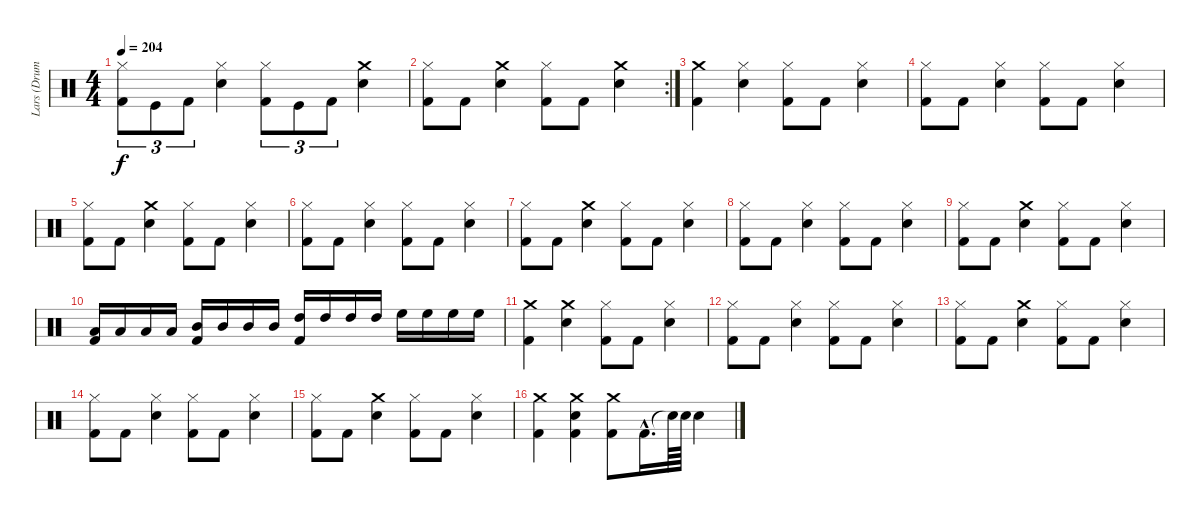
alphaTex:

\track ("Lars (Drums)" "Lars (Drum") {instrument percussion}
\staff {score}
\articulation defaults
\ts (4 4)
\tempo 204
\clef neutral
\ks c
("Hi-Hat (closed)" "Kick (hit) 2").8{tu (3 2) dy f} "Kick (hit)".8{tu (3 2)} "Kick (hit) 2".8{tu (3 2)} ("Snare (hit) 2" "Hi-Hat (closed)").4 ("Hi-Hat (closed)" "Kick (hit) 2").8{tu (3 2)} "Kick (hit)".8{tu (3 2)} "Kick (hit) 2".8{tu (3 2)} ("Crash medium (hit)" "Snare (hit) 2").4 |
\rc 2
("Kick (hit) 2" "Hi-Hat (closed)").8 "Kick (hit) 2".8 ("Crash medium (hit)" "Snare (hit) 2").4 ("Kick (hit) 2" "Hi-Hat (closed)").8 "Kick (hit) 2".8 ("Crash medium (hit)" "Snare (hit) 2").4 |
("Kick (hit) 2" "Crash medium (hit)").4 ("Hi-Hat (closed)" "Snare (hit) 2").4 ("Hi-Hat (closed)" "Kick (hit) 2").8 "Kick (hit) 2".8 ("Snare (hit) 2" "Hi-Hat (closed)").4 |
("Kick (hit) 2" "Hi-Hat (closed)").8 "Kick (hit) 2".8 ("Snare (hit) 2" "Hi-Hat (closed)").4 ("Kick (hit) 2" "Hi-Hat (closed)").8 "Kick (hit) 2".8 ("Snare (hit) 2" "Hi-Hat (closed)").4 |
("Kick (hit) 2" "Hi-Hat (closed)").8 "Kick (hit) 2".8 ("Crash medium (hit)" "Snare (hit) 2").4 ("Kick (hit) 2" "Hi-Hat (closed)").8 "Kick (hit) 2".8 ("Snare (hit) 2" "Hi-Hat (closed)").4 |
("Kick (hit) 2" "Hi-Hat (closed)").8 "Kick (hit) 2".8 ("Snare (hit) 2" "Hi-Hat (closed)").4 ("Kick (hit) 2" "Hi-Hat (closed)").8 "Kick (hit) 2".8 ("Snare (hit) 2" "Hi-Hat (closed)").4 |
("Kick (hit) 2" "Hi-Hat (closed)").8 "Kick (hit) 2".8 ("Crash medium (hit)" "Snare (hit) 2").4 ("Kick (hit) 2" "Hi-Hat (closed)").8 "Kick (hit) 2".8 ("Snare (hit) 2" "Hi-Hat (closed)").4 |
("Kick (hit) 2" "Hi-Hat (closed)").8 "Kick (hit) 2".8 ("Snare (hit) 2" "Hi-Hat (closed)").4 ("Kick (hit) 2" "Hi-Hat (closed)").8 "Kick (hit) 2".8 ("Snare (hit) 2" "Hi-Hat (closed)").4 |
("Kick (hit) 2" "Hi-Hat (closed)").8 "Kick (hit) 2".8 ("Crash medium (hit)" "Snare (hit) 2").4 ("Kick (hit) 2" "Hi-Hat (closed)").8 "Kick (hit) 2".8 ("Snare (hit) 2" "Hi-Hat (closed)").4 |
("Low Tom (hit)" "Kick (hit) 2").16 "Low Tom (hit)".16 "Low Tom (hit)".16 "Low Tom (hit)".16 ("Mid Tom (hit)" "Kick (hit) 2").16 "Mid Tom (hit)".16 "Mid Tom (hit)".16 "Mid Tom (hit)".16 ("High Tom (hit)" "Kick (hit) 2").16 "High Tom (hit)".16 "High Tom (hit)".16 "High Tom (hit)".16 "High Floor Tom (hit)".16 "High Floor Tom (hit)".16 "High Floor Tom (hit)".16 "High Floor Tom (hit)".16 |
("Kick (hit) 2" "Crash medium (hit)").4 ("Snare (hit) 2" "Crash medium (hit)").4 ("Hi-Hat (closed)" "Kick (hit) 2").8 "Kick (hit) 2".8 ("Hi-Hat (closed)" "Snare (hit) 2").4 |
("Kick (hit) 2" "Hi-Hat (closed)").8 "Kick (hit) 2".8 ("Snare (hit) 2" "Hi-Hat (closed)").4 ("Kick (hit) 2" "Hi-Hat (closed)").8 "Kick (hit) 2".8 ("Snare (hit) 2" "Hi-Hat (closed)").4 |
("Kick (hit) 2" "Hi-Hat (closed)").8 "Kick (hit) 2".8 ("Crash medium (hit)" "Snare (hit) 2").4 ("Kick (hit) 2" "Hi-Hat (closed)").8 "Kick (hit) 2".8 ("Snare (hit) 2" "Hi-Hat (closed)").4 |
("Kick (hit) 2" "Hi-Hat (closed)").8 "Kick (hit) 2".8 ("Snare (hit) 2" "Hi-Hat (closed)").4 ("Kick (hit) 2" "Hi-Hat (closed)").8 "Kick (hit) 2".8 ("Snare (hit) 2" "Hi-Hat (closed)").4 |
("Kick (hit) 2" "Hi-Hat (closed)").8 "Kick (hit) 2".8 ("Crash medium (hit)" "Snare (hit) 2").4 ("Kick (hit) 2" "Hi-Hat (closed)").8 "Kick (hit) 2".8 ("Snare (hit) 2" "Hi-Hat (closed)").4 |
("Kick (hit) 2" "Crash medium (hit)").4 ("Kick (hit) 2" "Snare (hit) 2" "Crash medium (hit)").4 ("Kick (hit) 2" "Crash medium (hit)").8 "Kick (hit) 2"{hac}.16{d} "Snare (hit)"{t}.64 "Snare (hit) 2".64 "Snare (hit) 2".4
